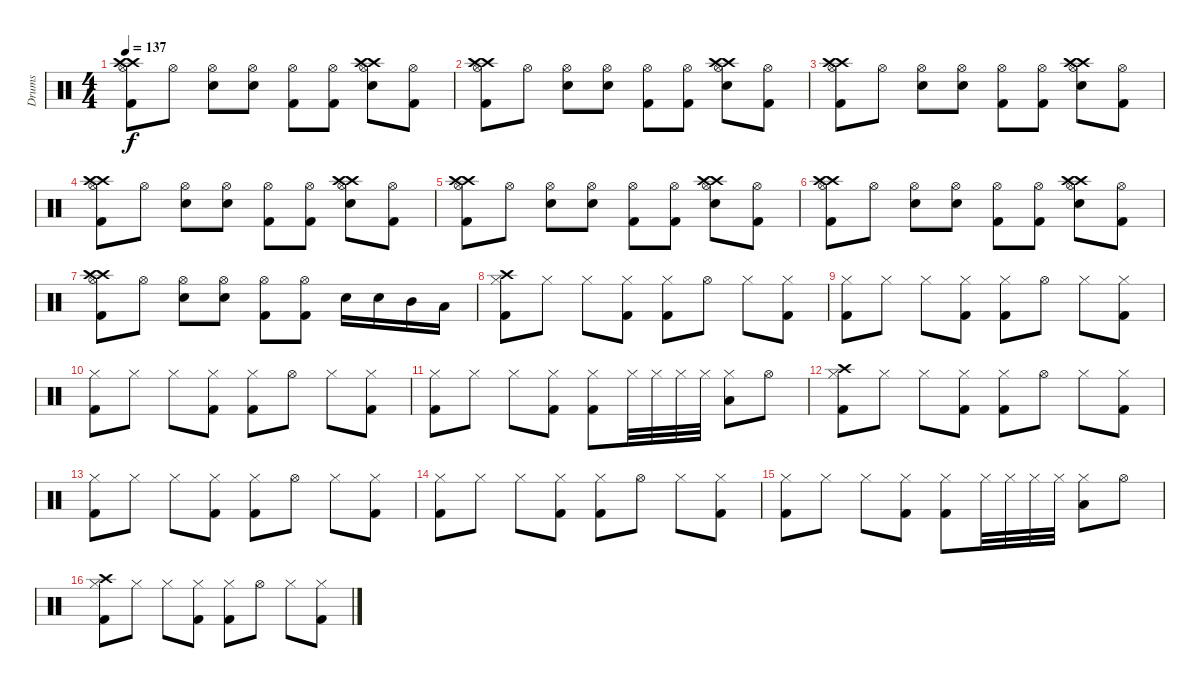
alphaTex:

\track ("Drums" "Drums") {instrument percussion}
\staff {score}
\articulation defaults
\ts (4 4)
\tempo 137
\clef neutral
\ks c
("Crash high (hit)" "Crash high (hit)" "Hi-Hat (open)" "Kick (hit) 2").8{dy f} "Hi-Hat (open)".8 ("Hi-Hat (open)" "Snare (hit) 2").8 ("Hi-Hat (open)" "Snare (hit) 2").8 ("Hi-Hat (open)" "Kick (hit) 2").8 ("Hi-Hat (open)" "Kick (hit) 2").8 ("Crash high (hit)" "Crash high (hit)" "Hi-Hat (open)" "Snare (hit) 2").8 ("Hi-Hat (open)" "Kick (hit) 2").8 |
("Crash high (hit)" "Crash high (hit)" "Hi-Hat (open)" "Kick (hit) 2").8 "Hi-Hat (open)".8 ("Hi-Hat (open)" "Snare (hit) 2").8 ("Hi-Hat (open)" "Snare (hit) 2").8 ("Hi-Hat (open)" "Kick (hit) 2").8 ("Hi-Hat (open)" "Kick (hit) 2").8 ("Crash high (hit)" "Crash high (hit)" "Hi-Hat (open)" "Snare (hit) 2").8 ("Hi-Hat (open)" "Kick (hit) 2").8 |
("Crash high (hit)" "Crash high (hit)" "Hi-Hat (open)" "Kick (hit) 2").8 "Hi-Hat (open)".8 ("Hi-Hat (open)" "Snare (hit) 2").8 ("Hi-Hat (open)" "Snare (hit) 2").8 ("Hi-Hat (open)" "Kick (hit) 2").8 ("Hi-Hat (open)" "Kick (hit) 2").8 ("Crash high (hit)" "Crash high (hit)" "Hi-Hat (open)" "Snare (hit) 2").8 ("Hi-Hat (open)" "Kick (hit) 2").8 |
("Crash high (hit)" "Crash high (hit)" "Hi-Hat (open)" "Kick (hit) 2").8 "Hi-Hat (open)".8 ("Hi-Hat (open)" "Snare (hit) 2").8 ("Hi-Hat (open)" "Snare (hit) 2").8 ("Hi-Hat (open)" "Kick (hit) 2").8 ("Hi-Hat (open)" "Kick (hit) 2").8 ("Crash high (hit)" "Crash high (hit)" "Hi-Hat (open)" "Snare (hit) 2").8 ("Hi-Hat (open)" "Kick (hit) 2").8 |
("Crash high (hit)" "Crash high (hit)" "Hi-Hat (open)" "Kick (hit) 2").8 "Hi-Hat (open)".8 ("Hi-Hat (open)" "Snare (hit) 2").8 ("Hi-Hat (open)" "Snare (hit) 2").8 ("Hi-Hat (open)" "Kick (hit) 2").8 ("Hi-Hat (open)" "Kick (hit) 2").8 ("Crash high (hit)" "Crash high (hit)" "Hi-Hat (open)" "Snare (hit) 2").8 ("Hi-Hat (open)" "Kick (hit) 2").8 |
("Crash high (hit)" "Crash high (hit)" "Hi-Hat (open)" "Kick (hit) 2").8 "Hi-Hat (open)".8 ("Hi-Hat (open)" "Snare (hit) 2").8 ("Hi-Hat (open)" "Snare (hit) 2").8 ("Hi-Hat (open)" "Kick (hit) 2").8 ("Hi-Hat (open)" "Kick (hit) 2").8 ("Crash high (hit)" "Crash high (hit)" "Hi-Hat (open)" "Snare (hit) 2").8 ("Hi-Hat (open)" "Kick (hit) 2").8 |
("Crash high (hit)" "Crash high (hit)" "Hi-Hat (open)" "Kick (hit) 2").8 "Hi-Hat (open)".8 ("Hi-Hat (open)" "Snare (hit) 2").8 ("Hi-Hat (open)" "Snare (hit) 2").8 ("Hi-Hat (open)" "Kick (hit) 2").8 ("Hi-Hat (open)" "Kick (hit) 2").8 "Snare (hit) 2".16 "Snare (hit) 2".16 "Mid Tom (hit)".16 "Low Tom (hit)".16 |
("Crash high (hit)" "Hi-Hat (closed)" "Kick (hit) 2").8 "Hi-Hat (closed)".8 "Hi-Hat (closed)".8 ("Hi-Hat (closed)" "Kick (hit) 2").8 ("Hi-Hat (closed)" "Kick (hit) 2").8 "Hi-Hat (open)".8 "Hi-Hat (closed)".8 ("Hi-Hat (closed)" "Kick (hit) 2").8 |
("Hi-Hat (closed)" "Kick (hit) 2").8 "Hi-Hat (closed)".8 "Hi-Hat (closed)".8 ("Hi-Hat (closed)" "Kick (hit) 2").8 ("Hi-Hat (closed)" "Kick (hit) 2").8 "Hi-Hat (open)".8 "Hi-Hat (closed)".8 ("Hi-Hat (closed)" "Kick (hit) 2").8 |
("Hi-Hat (closed)" "Kick (hit) 2").8 "Hi-Hat (closed)".8 "Hi-Hat (closed)".8 ("Hi-Hat (closed)" "Kick (hit) 2").8 ("Hi-Hat (closed)" "Kick (hit) 2").8 "Hi-Hat (open)".8 "Hi-Hat (closed)".8 ("Hi-Hat (closed)" "Kick (hit) 2").8 |
("Hi-Hat (closed)" "Kick (hit) 2").8 "Hi-Hat (closed)".8 "Hi-Hat (closed)".8 ("Hi-Hat (closed)" "Kick (hit) 2").8 ("Hi-Hat (closed)" "Kick (hit) 2").8 "Hi-Hat (closed)".32 "Hi-Hat (closed)".32 "Hi-Hat (closed)".32 "Hi-Hat (closed)".32 ("Hi-Hat (closed)" "Low Tom (hit)").8 "Hi-Hat (open)".8 |
("Crash high (hit)" "Hi-Hat (closed)" "Kick (hit) 2").8 "Hi-Hat (closed)".8 "Hi-Hat (closed)".8 ("Hi-Hat (closed)" "Kick (hit) 2").8 ("Hi-Hat (closed)" "Kick (hit) 2").8 "Hi-Hat (open)".8 "Hi-Hat (closed)".8 ("Hi-Hat (closed)" "Kick (hit) 2").8 |
("Hi-Hat (closed)" "Kick (hit) 2").8 "Hi-Hat (closed)".8 "Hi-Hat (closed)".8 ("Hi-Hat (closed)" "Kick (hit) 2").8 ("Hi-Hat (closed)" "Kick (hit) 2").8 "Hi-Hat (open)".8 "Hi-Hat (closed)".8 ("Hi-Hat (closed)" "Kick (hit) 2").8 |
("Hi-Hat (closed)" "Kick (hit) 2").8 "Hi-Hat (closed)".8 "Hi-Hat (closed)".8 ("Hi-Hat (closed)" "Kick (hit) 2").8 ("Hi-Hat (closed)" "Kick (hit) 2").8 "Hi-Hat (open)".8 "Hi-Hat (closed)".8 ("Hi-Hat (closed)" "Kick (hit) 2").8 |
("Hi-Hat (closed)" "Kick (hit) 2").8 "Hi-Hat (closed)".8 "Hi-Hat (closed)".8 ("Hi-Hat (closed)" "Kick (hit) 2").8 ("Hi-Hat (closed)" "Kick (hit) 2").8 "Hi-Hat (closed)".32 "Hi-Hat (closed)".32 "Hi-Hat (closed)".32 "Hi-Hat (closed)".32 ("Hi-Hat (closed)" "Low Tom (hit)").8 "Hi-Hat (open)".8 |
("Crash high (hit)" "Hi-Hat (closed)" "Kick (hit) 2").8 "Hi-Hat (closed)".8 "Hi-Hat (closed)".8 ("Hi-Hat (closed)" "Kick (hit) 2").8 ("Hi-Hat (closed)" "Kick (hit) 2").8 "Hi-Hat (open)".8 "Hi-Hat (closed)".8 ("Hi-Hat (closed)" "Kick (hit) 2").8
